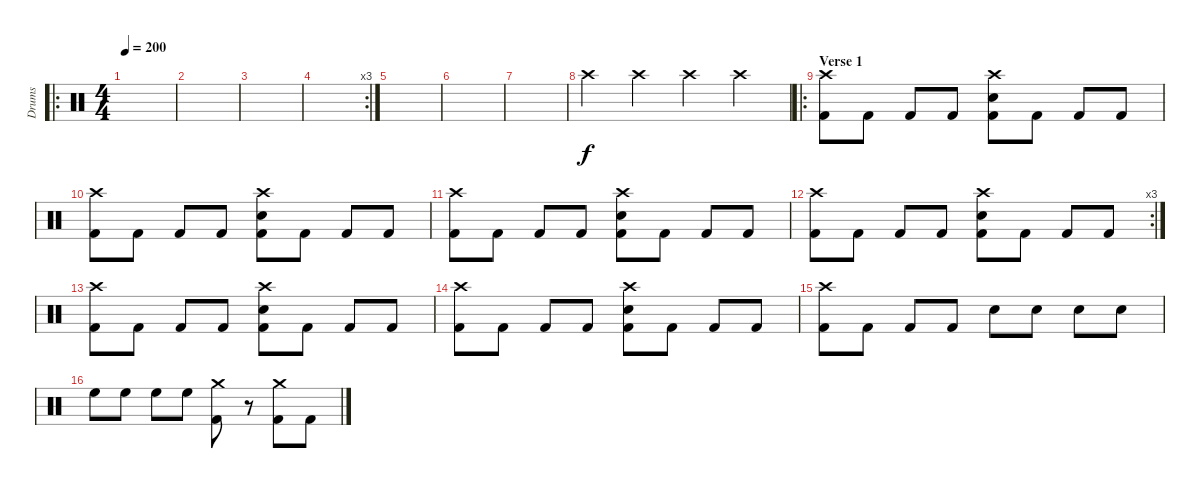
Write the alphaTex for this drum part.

\track ("Drums" "Drums") {instrument percussion}
\staff {score}
\articulation defaults
\ro
\ts (4 4)
\tempo 200
\clef neutral
\ks c
|
|
|
\rc 3
|
|
|
|
"Crash high (hit)".4 "Crash high (hit)".4 "Crash high (hit)".4 "Crash high (hit)".4 |
\ro
\section ("" "Verse 1")
("Kick (hit) 2" "Crash high (hit)").8 "Kick (hit) 2".8 "Kick (hit) 2".8 "Kick (hit) 2".8 ("Kick (hit) 2" "Crash high (hit)" "Electric Snare (hit)").8 "Kick (hit) 2".8 "Kick (hit) 2".8 "Kick (hit) 2".8 |
("Kick (hit) 2" "Crash high (hit)").8 "Kick (hit) 2".8 "Kick (hit) 2".8 "Kick (hit) 2".8 ("Kick (hit) 2" "Crash high (hit)" "Electric Snare (hit)").8 "Kick (hit) 2".8 "Kick (hit) 2".8 "Kick (hit) 2".8 |
("Kick (hit) 2" "Crash high (hit)").8 "Kick (hit) 2".8 "Kick (hit) 2".8 "Kick (hit) 2".8 ("Kick (hit) 2" "Crash high (hit)" "Electric Snare (hit)").8 "Kick (hit) 2".8 "Kick (hit) 2".8 "Kick (hit) 2".8 |
\rc 3
("Kick (hit) 2" "Crash high (hit)").8 "Kick (hit) 2".8 "Kick (hit) 2".8 "Kick (hit) 2".8 ("Kick (hit) 2" "Crash high (hit)" "Electric Snare (hit)").8 "Kick (hit) 2".8 "Kick (hit) 2".8 "Kick (hit) 2".8 |
("Kick (hit) 2" "Crash high (hit)").8 "Kick (hit) 2".8 "Kick (hit) 2".8 "Kick (hit) 2".8 ("Kick (hit) 2" "Crash high (hit)" "Electric Snare (hit)").8 "Kick (hit) 2".8 "Kick (hit) 2".8 "Kick (hit) 2".8 |
("Kick (hit) 2" "Crash high (hit)").8 "Kick (hit) 2".8 "Kick (hit) 2".8 "Kick (hit) 2".8 ("Kick (hit) 2" "Crash high (hit)" "Electric Snare (hit)").8 "Kick (hit) 2".8 "Kick (hit) 2".8 "Kick (hit) 2".8 |
("Kick (hit) 2" "Crash high (hit)").8 "Kick (hit) 2".8 "Kick (hit) 2".8 "Kick (hit) 2".8 "Electric Snare (hit)".8 "Electric Snare (hit)".8 "Electric Snare (hit)".8 "Electric Snare (hit)".8 |
"High Floor Tom (hit)".8 "High Floor Tom (hit)".8 "High Floor Tom (hit)".8 "High Floor Tom (hit)".8 ("Kick (hit) 2" "Crash medium (hit)").8 r.8 ("Kick (hit) 2" "Crash medium (hit)").8 "Kick (hit) 2".8
